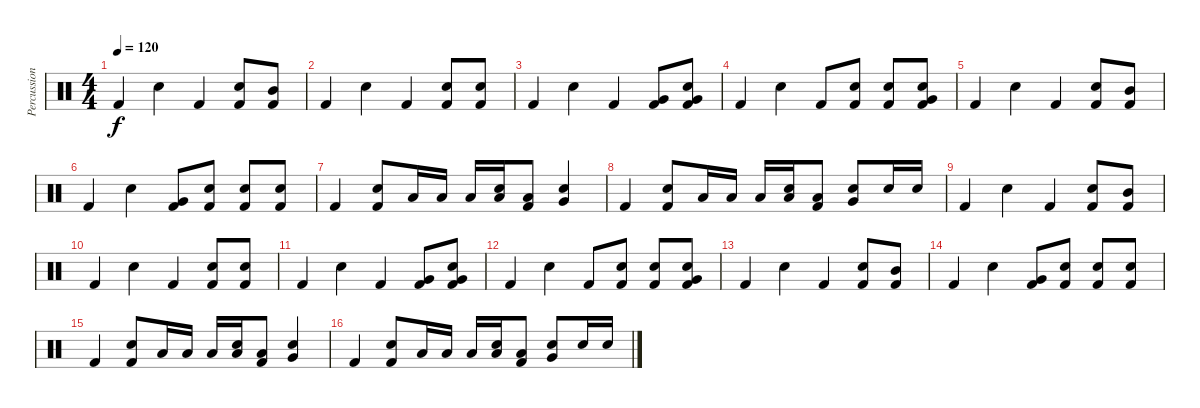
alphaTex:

\track ("Percussion" "Percussion") {instrument percussion}
\staff {score}
\articulation defaults
\ts (4 4)
\tempo 120
\clef neutral
\ks c "Kick (hit) 2".4{dy f} "Electric Snare (hit)".4 "Kick (hit) 2".4
("Electric Snare (hit)" "Kick (hit) 2").8 ("Mid Tom (hit)" "Kick (hit) 2").8 |
"Kick (hit) 2".4 "Electric Snare (hit)".4 "Kick (hit) 2".4 ("Electric Snare (hit)" "Kick (hit) 2").8 ("Electric Snare (hit)" "Kick (hit) 2").8 |
"Kick (hit) 2".4 "Electric Snare (hit)".4 "Kick (hit) 2".4 ("Very Low Tom (hit)" "Kick (hit) 2").8 ("Very Low Tom (hit)" "Electric Snare (hit)" "Kick (hit) 2").8 |
"Kick (hit) 2".4 "Electric Snare (hit)".4 "Kick (hit) 2".8 ("Electric Snare (hit)" "Kick (hit) 2").8 ("Electric Snare (hit)" "Kick (hit) 2").8 ("Very Low Tom (hit)" "Electric Snare (hit)" "Kick (hit) 2").8 |
"Kick (hit) 2".4 "Electric Snare (hit)".4 "Kick (hit) 2".4 ("Electric Snare (hit)" "Kick (hit) 2").8 ("Mid Tom (hit)" "Kick (hit) 2").8 |
"Kick (hit) 2".4 "Electric Snare (hit)".4 ("Very Low Tom (hit)" "Kick (hit) 2").8 ("Electric Snare (hit)" "Kick (hit) 2").8 ("Electric Snare (hit)" "Kick (hit) 2").8 ("Electric Snare (hit)" "Kick (hit) 2").8 |
"Kick (hit) 2".4 ("Electric Snare (hit)" "Kick (hit) 2").8 "Low Tom (hit)".16 "Low Tom (hit)".16 "Low Tom (hit)".16 ("Low Tom (hit)" "Electric Snare (hit)").16 ("Low Tom (hit)" "Kick (hit) 2").8 ("Very Low Tom (hit)" "Electric Snare (hit)").4 |
"Kick (hit) 2".4 ("Electric Snare (hit)" "Kick (hit) 2").8 "Low Tom (hit)".16 "Low Tom (hit)".16 "Low Tom (hit)".16 ("Low Tom (hit)" "Electric Snare (hit)").16 ("Low Tom (hit)" "Kick (hit) 2").8 ("Very Low Tom (hit)" "Electric Snare (hit)").8 "Electric Snare (hit)".16 "Electric Snare (hit)".16 |
"Kick (hit) 2".4 "Electric Snare (hit)".4 "Kick (hit) 2".4 ("Electric Snare (hit)" "Kick (hit) 2").8 ("Mid Tom (hit)" "Kick (hit) 2").8 |
"Kick (hit) 2".4 "Electric Snare (hit)".4 "Kick (hit) 2".4 ("Electric Snare (hit)" "Kick (hit) 2").8 ("Electric Snare (hit)" "Kick (hit) 2").8 |
"Kick (hit) 2".4 "Electric Snare (hit)".4 "Kick (hit) 2".4 ("Very Low Tom (hit)" "Kick (hit) 2").8 ("Very Low Tom (hit)" "Electric Snare (hit)" "Kick (hit) 2").8 |
"Kick (hit) 2".4 "Electric Snare (hit)".4 "Kick (hit) 2".8 ("Electric Snare (hit)" "Kick (hit) 2").8 ("Electric Snare (hit)" "Kick (hit) 2").8 ("Very Low Tom (hit)" "Electric Snare (hit)" "Kick (hit) 2").8 |
"Kick (hit) 2".4 "Electric Snare (hit)".4 "Kick (hit) 2".4 ("Electric Snare (hit)" "Kick (hit) 2").8 ("Mid Tom (hit)" "Kick (hit) 2").8 |
"Kick (hit) 2".4 "Electric Snare (hit)".4 ("Very Low Tom (hit)" "Kick (hit) 2").8 ("Electric Snare (hit)" "Kick (hit) 2").8 ("Electric Snare (hit)" "Kick (hit) 2").8 ("Electric Snare (hit)" "Kick (hit) 2").8 |
"Kick (hit) 2".4 ("Electric Snare (hit)" "Kick (hit) 2").8 "Low Tom (hit)".16 "Low Tom (hit)".16 "Low Tom (hit)".16 ("Low Tom (hit)" "Electric Snare (hit)").16 ("Low Tom (hit)" "Kick (hit) 2").8 ("Very Low Tom (hit)" "Electric Snare (hit)").4 |
"Kick (hit) 2".4 ("Electric Snare (hit)" "Kick (hit) 2").8 "Low Tom (hit)".16 "Low Tom (hit)".16 "Low Tom (hit)".16 ("Low Tom (hit)" "Electric Snare (hit)").16 ("Low Tom (hit)" "Kick (hit) 2").8 ("Very Low Tom (hit)" "Electric Snare (hit)").8 "Electric Snare (hit)".16 "Electric Snare (hit)".16
